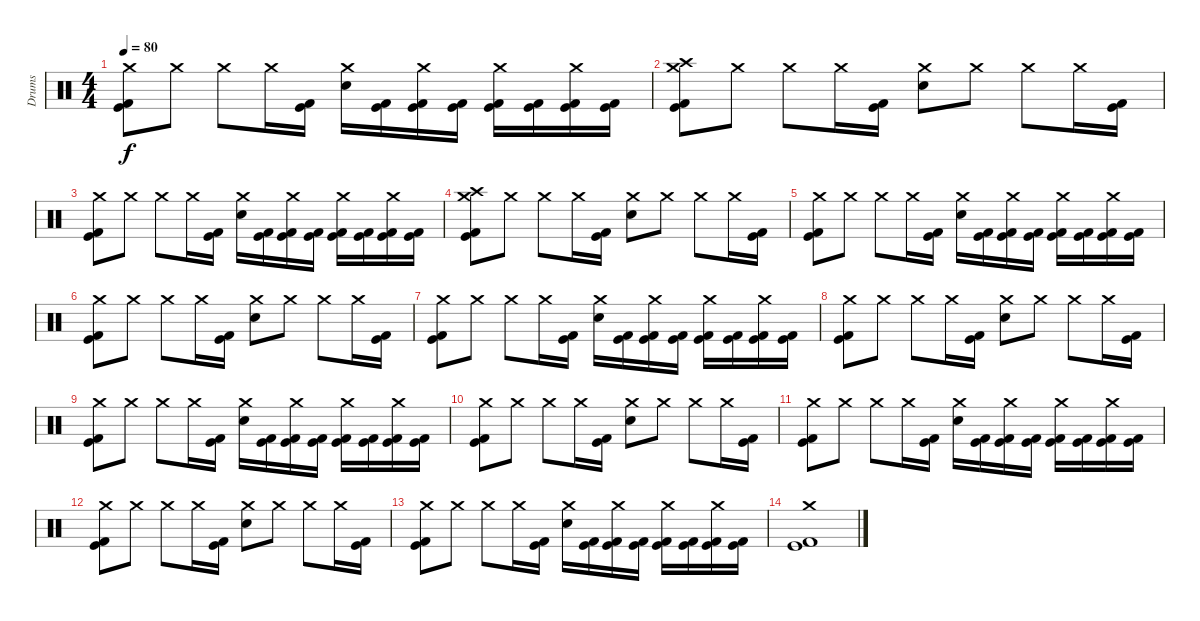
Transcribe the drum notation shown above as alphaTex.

\track ("Drums" "Drums") {instrument percussion}
\staff {score}
\articulation defaults
\ts (4 4)
\tempo 80
\clef neutral
\ks c
("Crash medium (hit)" "Kick (hit) 2" "Kick (hit)").8{dy f} "Crash medium (hit)".8 "Crash medium (hit)".8 "Crash medium (hit)".16 ("Kick (hit) 2" "Kick (hit)").16 ("Crash medium (hit)" "Electric Snare (hit)").16 ("Kick (hit) 2" "Kick (hit)").16 ("Crash medium (hit)" "Kick (hit) 2" "Kick (hit)").16 ("Kick (hit) 2" "Kick (hit)").16 ("Crash medium (hit)" "Kick (hit) 2" "Kick (hit)").16 ("Kick (hit) 2" "Kick (hit)").16 ("Crash medium (hit)" "Kick (hit) 2" "Kick (hit)").16 ("Kick (hit) 2" "Kick (hit)").16 |
("Crash medium (hit)" "Crash high (hit)" "Kick (hit) 2" "Kick (hit)").8 "Crash medium (hit)".8 "Crash medium (hit)".8 "Crash medium (hit)".16 ("Kick (hit) 2" "Kick (hit)").16 ("Crash medium (hit)" "Electric Snare (hit)").8 "Crash medium (hit)".8 "Crash medium (hit)".8 "Crash medium (hit)".16 ("Kick (hit) 2" "Kick (hit)").16 |
("Crash medium (hit)" "Kick (hit) 2" "Kick (hit)").8 "Crash medium (hit)".8 "Crash medium (hit)".8 "Crash medium (hit)".16 ("Kick (hit) 2" "Kick (hit)").16 ("Crash medium (hit)" "Electric Snare (hit)").16 ("Kick (hit) 2" "Kick (hit)").16 ("Crash medium (hit)" "Kick (hit) 2" "Kick (hit)").16 ("Kick (hit) 2" "Kick (hit)").16 ("Crash medium (hit)" "Kick (hit) 2" "Kick (hit)").16 ("Kick (hit) 2" "Kick (hit)").16 ("Crash medium (hit)" "Kick (hit) 2" "Kick (hit)").16 ("Kick (hit) 2" "Kick (hit)").16 |
("Crash medium (hit)" "Crash high (hit)" "Kick (hit) 2" "Kick (hit)").8 "Crash medium (hit)".8 "Crash medium (hit)".8 "Crash medium (hit)".16 ("Kick (hit) 2" "Kick (hit)").16 ("Crash medium (hit)" "Electric Snare (hit)").8 "Crash medium (hit)".8 "Crash medium (hit)".8 "Crash medium (hit)".16 ("Kick (hit) 2" "Kick (hit)").16 |
("Crash medium (hit)" "Kick (hit) 2" "Kick (hit)").8 "Crash medium (hit)".8 "Crash medium (hit)".8 "Crash medium (hit)".16 ("Kick (hit) 2" "Kick (hit)").16 ("Crash medium (hit)" "Electric Snare (hit)").16 ("Kick (hit) 2" "Kick (hit)").16 ("Crash medium (hit)" "Kick (hit) 2" "Kick (hit)").16 ("Kick (hit) 2" "Kick (hit)").16 ("Crash medium (hit)" "Kick (hit) 2" "Kick (hit)").16 ("Kick (hit) 2" "Kick (hit)").16 ("Crash medium (hit)" "Kick (hit) 2" "Kick (hit)").16 ("Kick (hit) 2" "Kick (hit)").16 |
("Crash medium (hit)" "Kick (hit) 2" "Kick (hit)").8 "Crash medium (hit)".8 "Crash medium (hit)".8 "Crash medium (hit)".16 ("Kick (hit) 2" "Kick (hit)").16 ("Crash medium (hit)" "Electric Snare (hit)").8 "Crash medium (hit)".8 "Crash medium (hit)".8 "Crash medium (hit)".16 ("Kick (hit) 2" "Kick (hit)").16 |
("Crash medium (hit)" "Kick (hit) 2" "Kick (hit)").8 "Crash medium (hit)".8 "Crash medium (hit)".8 "Crash medium (hit)".16 ("Kick (hit) 2" "Kick (hit)").16 ("Crash medium (hit)" "Electric Snare (hit)").16 ("Kick (hit) 2" "Kick (hit)").16 ("Crash medium (hit)" "Kick (hit) 2" "Kick (hit)").16 ("Kick (hit) 2" "Kick (hit)").16 ("Crash medium (hit)" "Kick (hit) 2" "Kick (hit)").16 ("Kick (hit) 2" "Kick (hit)").16 ("Crash medium (hit)" "Kick (hit) 2" "Kick (hit)").16 ("Kick (hit) 2" "Kick (hit)").16 |
("Crash medium (hit)" "Kick (hit) 2" "Kick (hit)").8 "Crash medium (hit)".8 "Crash medium (hit)".8 "Crash medium (hit)".16 ("Kick (hit) 2" "Kick (hit)").16 ("Crash medium (hit)" "Electric Snare (hit)").8 "Crash medium (hit)".8 "Crash medium (hit)".8 "Crash medium (hit)".16 ("Kick (hit) 2" "Kick (hit)").16 |
("Crash medium (hit)" "Kick (hit) 2" "Kick (hit)").8 "Crash medium (hit)".8 "Crash medium (hit)".8 "Crash medium (hit)".16 ("Kick (hit) 2" "Kick (hit)").16 ("Crash medium (hit)" "Electric Snare (hit)").16 ("Kick (hit) 2" "Kick (hit)").16 ("Crash medium (hit)" "Kick (hit) 2" "Kick (hit)").16 ("Kick (hit) 2" "Kick (hit)").16 ("Crash medium (hit)" "Kick (hit) 2" "Kick (hit)").16 ("Kick (hit) 2" "Kick (hit)").16 ("Crash medium (hit)" "Kick (hit) 2" "Kick (hit)").16 ("Kick (hit) 2" "Kick (hit)").16 |
("Crash medium (hit)" "Kick (hit) 2" "Kick (hit)").8 "Crash medium (hit)".8 "Crash medium (hit)".8 "Crash medium (hit)".16 ("Kick (hit) 2" "Kick (hit)").16 ("Crash medium (hit)" "Electric Snare (hit)").8 "Crash medium (hit)".8 "Crash medium (hit)".8 "Crash medium (hit)".16 ("Kick (hit) 2" "Kick (hit)").16 |
("Crash medium (hit)" "Kick (hit) 2" "Kick (hit)").8 "Crash medium (hit)".8 "Crash medium (hit)".8 "Crash medium (hit)".16 ("Kick (hit) 2" "Kick (hit)").16 ("Crash medium (hit)" "Electric Snare (hit)").16 ("Kick (hit) 2" "Kick (hit)").16 ("Crash medium (hit)" "Kick (hit) 2" "Kick (hit)").16 ("Kick (hit) 2" "Kick (hit)").16 ("Crash medium (hit)" "Kick (hit) 2" "Kick (hit)").16 ("Kick (hit) 2" "Kick (hit)").16 ("Crash medium (hit)" "Kick (hit) 2" "Kick (hit)").16 ("Kick (hit) 2" "Kick (hit)").16 |
("Crash medium (hit)" "Kick (hit) 2" "Kick (hit)").8 "Crash medium (hit)".8 "Crash medium (hit)".8 "Crash medium (hit)".16 ("Kick (hit) 2" "Kick (hit)").16 ("Crash medium (hit)" "Electric Snare (hit)").8 "Crash medium (hit)".8 "Crash medium (hit)".8 "Crash medium (hit)".16 ("Kick (hit) 2" "Kick (hit)").16 |
("Crash medium (hit)" "Kick (hit) 2" "Kick (hit)").8 "Crash medium (hit)".8 "Crash medium (hit)".8 "Crash medium (hit)".16 ("Kick (hit) 2" "Kick (hit)").16 ("Crash medium (hit)" "Electric Snare (hit)").16 ("Kick (hit) 2" "Kick (hit)").16 ("Crash medium (hit)" "Kick (hit) 2" "Kick (hit)").16 ("Kick (hit) 2" "Kick (hit)").16 ("Crash medium (hit)" "Kick (hit) 2" "Kick (hit)").16 ("Kick (hit) 2" "Kick (hit)").16 ("Crash medium (hit)" "Kick (hit) 2" "Kick (hit)").16 ("Kick (hit) 2" "Kick (hit)").16 |
("Crash medium (hit)" "Kick (hit) 2" "Kick (hit)").1
